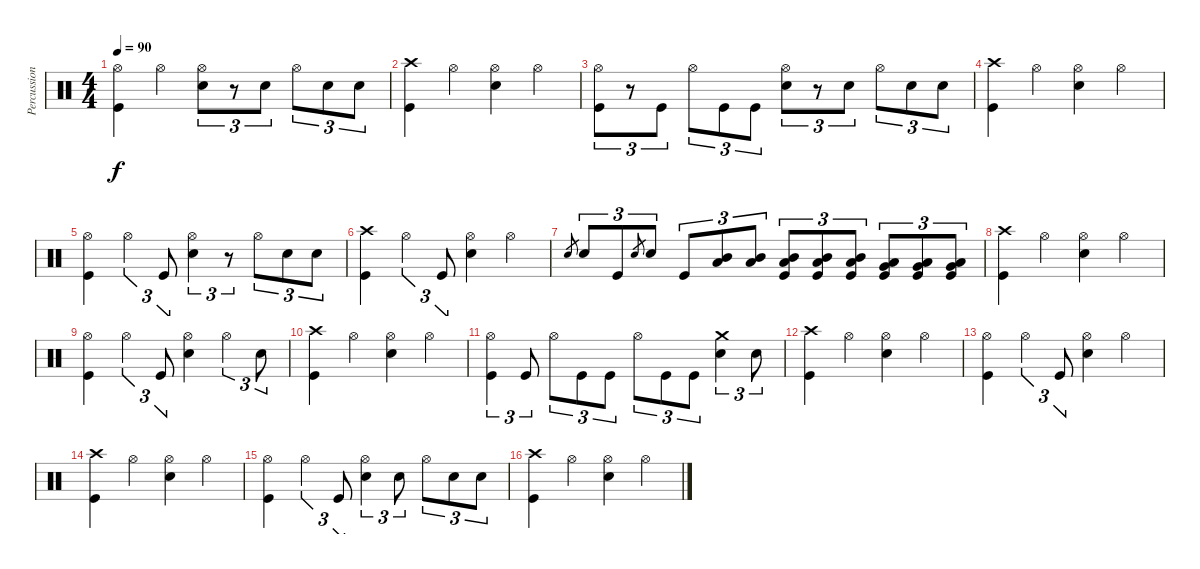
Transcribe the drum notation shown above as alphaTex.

\track ("Percussion" "Percussion") {instrument percussion}
\staff {score}
\articulation defaults
\ts (4 4)
\tempo 90
\clef neutral
\ks c
("Hi-Hat (open)" "Kick (hit)").4{dy f} "Hi-Hat (open)".4 ("Hi-Hat (open)" "Electric Snare (hit)").8{tu (3 2)} r.8{tu (3 2)} "Electric Snare (hit)".8{tu (3 2)} "Hi-Hat (open)".8{tu (3 2)} "Electric Snare (hit)".8{tu (3 2)} "Electric Snare (hit)".8{tu (3 2)} |
("Crash high (hit)" "Kick (hit)").4 "Hi-Hat (open)".4 ("Hi-Hat (open)" "Electric Snare (hit)").4 "Hi-Hat (open)".4 |
("Hi-Hat (open)" "Kick (hit)").8{tu (3 2)} r.8{tu (3 2)} "Kick (hit)".8{tu (3 2)} "Hi-Hat (open)".8{tu (3 2)} "Kick (hit)".8{tu (3 2)} "Kick (hit)".8{tu (3 2)} ("Hi-Hat (open)" "Electric Snare (hit)").8{tu (3 2)} r.8{tu (3 2)} "Electric Snare (hit)".8{tu (3 2)} "Hi-Hat (open)".8{tu (3 2)} "Electric Snare (hit)".8{tu (3 2)} "Electric Snare (hit)".8{tu (3 2)} |
("Crash high (hit)" "Kick (hit)").4 "Hi-Hat (open)".4 ("Hi-Hat (open)" "Electric Snare (hit)").4 "Hi-Hat (open)".4 |
("Hi-Hat (open)" "Kick (hit)").4 "Hi-Hat (open)".4{tu (3 2)} "Kick (hit)".8{tu (3 2)} ("Hi-Hat (open)" "Electric Snare (hit)").4{tu (3 2)} r.8{tu (3 2)} "Hi-Hat (open)".8{tu (3 2)} "Electric Snare (hit)".8{tu (3 2)} "Electric Snare (hit)".8{tu (3 2)} |
("Crash high (hit)" "Kick (hit)").4 "Hi-Hat (open)".4{tu (3 2)} "Kick (hit)".8{tu (3 2)} ("Hi-Hat (open)" "Electric Snare (hit)").4 "Hi-Hat (open)".4 |
"Electric Snare (hit)".8{gr} "Electric Snare (hit)".8{tu (3 2)} "Kick (hit)".8{tu (3 2)} "Electric Snare (hit)".8{gr} "Electric Snare (hit)".8{tu (3 2)} "Kick (hit)".8{tu (3 2)} ("Mid Tom (hit)" "Low Tom (hit)").8{tu (3 2)} ("Mid Tom (hit)" "Low Tom (hit)").8{tu (3 2)} ("Mid Tom (hit)" "Low Tom (hit)" "Kick (hit)").8{tu (3 2)} ("Mid Tom (hit)" "Low Tom (hit)" "Kick (hit)").8{tu (3 2)} ("Mid Tom (hit)" "Low Tom (hit)" "Kick (hit)").8{tu (3 2)} ("Low Tom (hit)" "Very Low Tom (hit)" "Kick (hit)").8{tu (3 2)} ("Low Tom (hit)" "Very Low Tom (hit)" "Kick (hit)").8{tu (3 2)} ("Low Tom (hit)" "Very Low Tom (hit)" "Kick (hit)").8{tu (3 2)} |
("Crash high (hit)" "Kick (hit)").4 "Hi-Hat (open)".4 ("Hi-Hat (open)" "Electric Snare (hit)").4 "Hi-Hat (open)".4 |
("Hi-Hat (open)" "Kick (hit)").4 "Hi-Hat (open)".4{tu (3 2)} "Kick (hit)".8{tu (3 2)} ("Hi-Hat (open)" "Electric Snare (hit)").4 "Hi-Hat (open)".4{tu (3 2)} "Electric Snare (hit)".8{tu (3 2)} |
("Crash high (hit)" "Kick (hit)").4 "Hi-Hat (open)".4 ("Hi-Hat (open)" "Electric Snare (hit)").4 "Hi-Hat (open)".4 |
("Hi-Hat (open)" "Kick (hit)").4{tu (3 2)} "Kick (hit)".8{tu (3 2)} "Hi-Hat (open)".8{tu (3 2)} "Kick (hit)".8{tu (3 2)} "Kick (hit)".8{tu (3 2)} "Hi-Hat (open)".8{tu (3 2)} "Kick (hit)".8{tu (3 2)} "Kick (hit)".8{tu (3 2)} ("Crash medium (hit)" "Electric Snare (hit)").4{tu (3 2)} "Electric Snare (hit)".8{tu (3 2)} |
("Crash high (hit)" "Kick (hit)").4 "Hi-Hat (open)".4 ("Hi-Hat (open)" "Electric Snare (hit)").4 "Hi-Hat (open)".4 |
("Hi-Hat (open)" "Kick (hit)").4 "Hi-Hat (open)".4{tu (3 2)} "Kick (hit)".8{tu (3 2)} ("Hi-Hat (open)" "Electric Snare (hit)").4 "Hi-Hat (open)".4 |
("Crash high (hit)" "Kick (hit)").4 "Hi-Hat (open)".4 ("Hi-Hat (open)" "Electric Snare (hit)").4 "Hi-Hat (open)".4 |
("Hi-Hat (open)" "Kick (hit)").4 "Hi-Hat (open)".4{tu (3 2)} "Kick (hit)".8{tu (3 2)} ("Hi-Hat (open)" "Electric Snare (hit)").4{tu (3 2)} "Electric Snare (hit)".8{tu (3 2)} "Hi-Hat (open)".8{tu (3 2)} "Electric Snare (hit)".8{tu (3 2)} "Electric Snare (hit)".8{tu (3 2)} |
("Crash high (hit)" "Kick (hit)").4 "Hi-Hat (open)".4 ("Hi-Hat (open)" "Electric Snare (hit)").4 "Hi-Hat (open)".4
